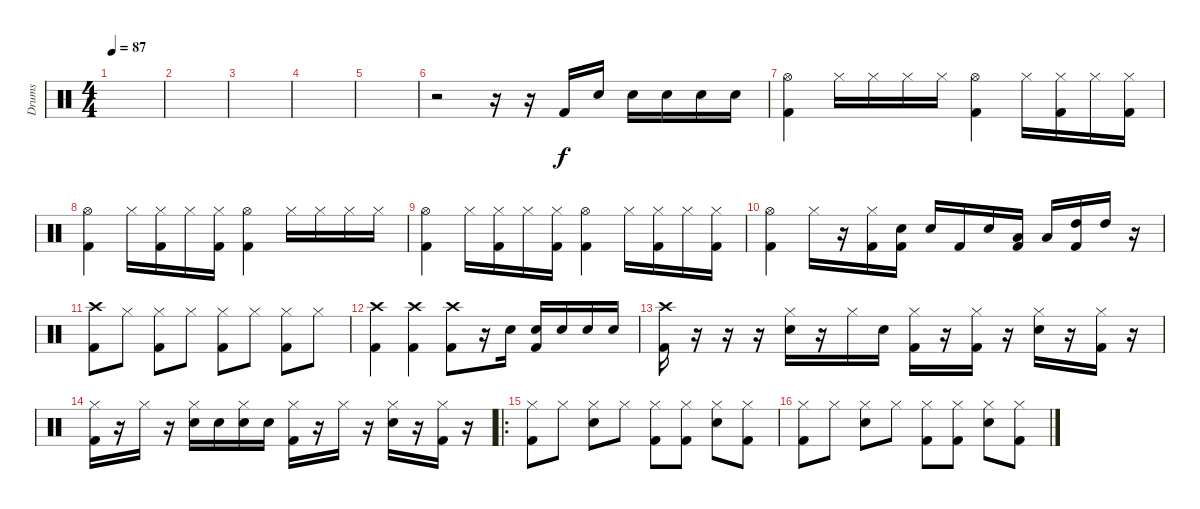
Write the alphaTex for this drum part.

\track ("Drums" "Drums") {instrument percussion}
\staff {score}
\articulation defaults
\ts (4 4)
\tempo 87
\clef neutral
\ks c
|
|
|
|
|
r.2 r.16 r.16 "Kick (hit) 2".16 "Snare (hit) 2".16 "Snare (hit) 2".16 "Snare (hit) 2".16 "Snare (hit) 2".16 "Snare (hit) 2".16 |
("Hi-Hat (open)" "Kick (hit) 2").4 "Hi-Hat (closed)".16 "Hi-Hat (closed)".16 "Hi-Hat (closed)".16 "Hi-Hat (closed)".16 ("Hi-Hat (open)" "Kick (hit) 2").4 "Hi-Hat (closed)".16 ("Hi-Hat (closed)" "Kick (hit) 2").16 "Hi-Hat (closed)".16 ("Hi-Hat (closed)" "Kick (hit) 2").16 |
("Hi-Hat (open)" "Kick (hit) 2").4 "Hi-Hat (closed)".16 ("Hi-Hat (closed)" "Kick (hit) 2").16 "Hi-Hat (closed)".16 ("Hi-Hat (closed)" "Kick (hit) 2").16 ("Hi-Hat (open)" "Kick (hit) 2").4 "Hi-Hat (closed)".16 "Hi-Hat (closed)".16 "Hi-Hat (closed)".16 "Hi-Hat (closed)".16 |
("Hi-Hat (open)" "Kick (hit) 2").4 "Hi-Hat (closed)".16 ("Hi-Hat (closed)" "Kick (hit) 2").16 "Hi-Hat (closed)".16 ("Hi-Hat (closed)" "Kick (hit) 2").16 ("Hi-Hat (open)" "Kick (hit) 2").4 "Hi-Hat (closed)".16 ("Hi-Hat (closed)" "Kick (hit) 2").16 "Hi-Hat (closed)".16 ("Hi-Hat (closed)" "Kick (hit) 2").16 |
("Hi-Hat (open)" "Kick (hit) 2").4 "Hi-Hat (closed)".16 r.16 ("Hi-Hat (closed)" "Kick (hit) 2").16 ("Snare (hit) 2" "Kick (hit) 2").16 "Snare (hit) 2".16 "Kick (hit) 2".16 "Snare (hit) 2".16 ("Low Tom (hit)" "Kick (hit) 2").16 "Low Tom (hit)".16 ("High Tom (hit)" "Kick (hit) 2").16 "High Tom (hit)".16 r.16 |
("Crash high (hit)" "Kick (hit) 2").8 "Hi-Hat (closed)".8 ("Hi-Hat (closed)" "Kick (hit) 2").8 "Hi-Hat (closed)".8 ("Hi-Hat (closed)" "Kick (hit) 2").8 "Hi-Hat (closed)".8 ("Hi-Hat (closed)" "Kick (hit) 2").8 "Hi-Hat (closed)".8 |
("Crash high (hit)" "Kick (hit) 2").4 ("Crash high (hit)" "Kick (hit) 2").4 ("Crash high (hit)" "Kick (hit) 2").8 r.16 "Snare (hit) 2".16 ("Snare (hit) 2" "Kick (hit) 2").16 "Snare (hit) 2".16 "Snare (hit) 2".16 "Snare (hit) 2".16 |
("Crash high (hit)" "Kick (hit) 2").16 r.16 r.16 r.16 ("Hi-Hat (closed)" "Snare (hit) 2").16 r.16 "Hi-Hat (closed)".16 "Snare (hit) 2".16 ("Hi-Hat (closed)" "Kick (hit) 2").16 r.16 ("Hi-Hat (closed)" "Kick (hit) 2").16 r.16 ("Hi-Hat (closed)" "Snare (hit) 2").16 r.16 ("Hi-Hat (closed)" "Kick (hit) 2").16 r.16 |
("Hi-Hat (closed)" "Kick (hit) 2").16 r.16 "Hi-Hat (closed)".16 r.16 ("Hi-Hat (closed)" "Snare (hit) 2").16 "Snare (hit) 2".16 ("Hi-Hat (closed)" "Snare (hit) 2").16 "Snare (hit) 2".16 ("Hi-Hat (closed)" "Kick (hit) 2").16 r.16 "Hi-Hat (closed)".16 r.16 ("Hi-Hat (closed)" "Snare (hit) 2").16 r.16 ("Hi-Hat (closed)" "Kick (hit) 2").16 r.16 |
\ro
("Hi-Hat (closed)" "Kick (hit) 2").8 "Hi-Hat (closed)".8 ("Hi-Hat (closed)" "Snare (hit) 2").8 "Hi-Hat (closed)".8 ("Hi-Hat (closed)" "Kick (hit) 2").8 ("Hi-Hat (closed)" "Kick (hit) 2").8 ("Hi-Hat (closed)" "Snare (hit) 2").8 ("Hi-Hat (closed)" "Kick (hit) 2").8 |
("Hi-Hat (closed)" "Kick (hit) 2").8 "Hi-Hat (closed)".8 ("Hi-Hat (closed)" "Snare (hit) 2").8 "Hi-Hat (closed)".8 ("Hi-Hat (closed)" "Kick (hit) 2").8 ("Hi-Hat (closed)" "Kick (hit) 2").8 ("Hi-Hat (closed)" "Snare (hit) 2").8 ("Hi-Hat (closed)" "Kick (hit) 2").8
